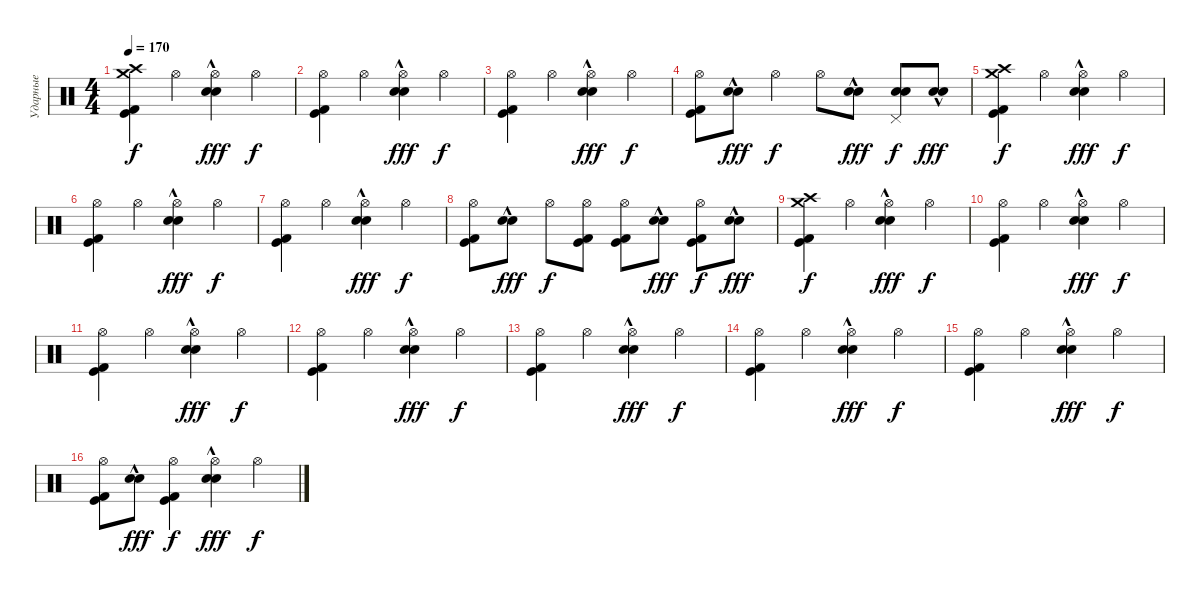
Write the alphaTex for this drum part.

\track ("Ударные" "Ударные") {instrument percussion}
\staff {score}
\articulation defaults
\ts (4 4)
\tempo 170
\clef neutral
\ks c
("Crash high (hit)" "Kick (hit)" "Kick (hit) 2" "Crash medium (hit)").4{dy f} "Hi-Hat (open)".4 ("Hi-Hat (open)" "Snare (hit) 2"{hac} "Electric Snare (hit)"{hac}).4{dy fff} "Hi-Hat (open)".4{dy f} |
("Hi-Hat (open)" "Kick (hit)" "Kick (hit) 2").4 "Hi-Hat (open)".4 ("Hi-Hat (open)" "Snare (hit) 2"{hac} "Electric Snare (hit)"{hac}).4{dy fff} "Hi-Hat (open)".4{dy f} |
("Hi-Hat (open)" "Kick (hit)" "Kick (hit) 2").4 "Hi-Hat (open)".4 ("Hi-Hat (open)" "Snare (hit) 2"{hac} "Electric Snare (hit)"{hac}).4{dy fff} "Hi-Hat (open)".4{dy f} |
("Hi-Hat (open)" "Kick (hit)" "Kick (hit) 2").8 ("Snare (hit) 2"{hac} "Electric Snare (hit)"{hac}).8{dy fff} "Hi-Hat (open)".4{dy f} "Hi-Hat (open)".8 ("Snare (hit) 2"{hac} "Electric Snare (hit)"{hac}).8{dy fff} ("Pedal Hi-Hat (hit)" "Snare (hit) 2" "Electric Snare (hit)").8{dy f} ("Snare (hit) 2"{hac} "Electric Snare (hit)"{hac}).8{dy fff} |
("Crash high (hit)" "Kick (hit)" "Kick (hit) 2" "Crash medium (hit)").4{dy f} "Hi-Hat (open)".4 ("Hi-Hat (open)" "Snare (hit) 2"{hac} "Electric Snare (hit)"{hac}).4{dy fff} "Hi-Hat (open)".4{dy f} |
("Hi-Hat (open)" "Kick (hit)" "Kick (hit) 2").4 "Hi-Hat (open)".4 ("Hi-Hat (open)" "Snare (hit) 2"{hac} "Electric Snare (hit)"{hac}).4{dy fff} "Hi-Hat (open)".4{dy f} |
("Hi-Hat (open)" "Kick (hit)" "Kick (hit) 2").4 "Hi-Hat (open)".4 ("Hi-Hat (open)" "Snare (hit) 2"{hac} "Electric Snare (hit)"{hac}).4{dy fff} "Hi-Hat (open)".4{dy f} |
("Hi-Hat (open)" "Kick (hit)" "Kick (hit) 2").8 ("Snare (hit) 2"{hac} "Electric Snare (hit)"{hac}).8{dy fff} "Hi-Hat (open)".8{dy f} ("Hi-Hat (open)" "Kick (hit)" "Kick (hit) 2").8 ("Hi-Hat (open)" "Kick (hit)" "Kick (hit) 2").8 ("Snare (hit) 2"{hac} "Electric Snare (hit)"{hac}).8{dy fff} ("Hi-Hat (open)" "Kick (hit)" "Kick (hit) 2").8{dy f} ("Snare (hit) 2"{hac} "Electric Snare (hit)"{hac}).8{dy fff} |
("Crash high (hit)" "Kick (hit)" "Kick (hit) 2" "Crash medium (hit)").4{dy f} "Hi-Hat (open)".4 ("Hi-Hat (open)" "Snare (hit) 2"{hac} "Electric Snare (hit)"{hac}).4{dy fff} "Hi-Hat (open)".4{dy f} |
("Hi-Hat (open)" "Kick (hit)" "Kick (hit) 2").4 "Hi-Hat (open)".4 ("Hi-Hat (open)" "Snare (hit) 2"{hac} "Electric Snare (hit)"{hac}).4{dy fff} "Hi-Hat (open)".4{dy f} |
("Hi-Hat (open)" "Kick (hit)" "Kick (hit) 2").4 "Hi-Hat (open)".4 ("Hi-Hat (open)" "Snare (hit) 2"{hac} "Electric Snare (hit)"{hac}).4{dy fff} "Hi-Hat (open)".4{dy f} |
("Hi-Hat (open)" "Kick (hit)" "Kick (hit) 2").4 "Hi-Hat (open)".4 ("Hi-Hat (open)" "Snare (hit) 2"{hac} "Electric Snare (hit)"{hac}).4{dy fff} "Hi-Hat (open)".4{dy f} |
("Hi-Hat (open)" "Kick (hit)" "Kick (hit) 2").4 "Hi-Hat (open)".4 ("Hi-Hat (open)" "Snare (hit) 2"{hac} "Electric Snare (hit)"{hac}).4{dy fff} "Hi-Hat (open)".4{dy f} |
("Hi-Hat (open)" "Kick (hit)" "Kick (hit) 2").4 "Hi-Hat (open)".4 ("Hi-Hat (open)" "Snare (hit) 2"{hac} "Electric Snare (hit)"{hac}).4{dy fff} "Hi-Hat (open)".4{dy f} |
("Hi-Hat (open)" "Kick (hit)" "Kick (hit) 2").4 "Hi-Hat (open)".4 ("Hi-Hat (open)" "Snare (hit) 2"{hac} "Electric Snare (hit)"{hac}).4{dy fff} "Hi-Hat (open)".4{dy f} |
("Hi-Hat (open)" "Kick (hit)" "Kick (hit) 2").8 ("Snare (hit) 2"{hac} "Electric Snare (hit)"{hac}).8{dy fff} ("Hi-Hat (open)" "Kick (hit)" "Kick (hit) 2").4{dy f} ("Hi-Hat (open)" "Snare (hit) 2"{hac} "Electric Snare (hit)"{hac}).4{dy fff} "Hi-Hat (open)".4{dy f}
